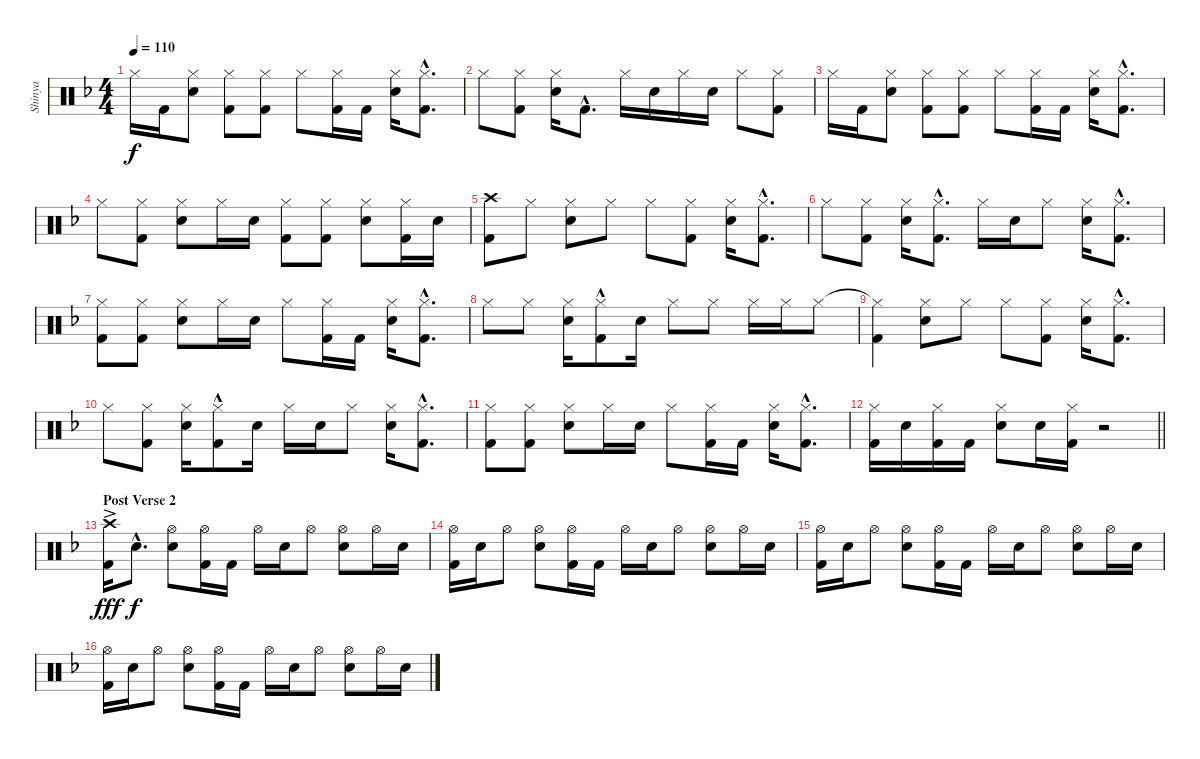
\track ("Shinya" "Shinya") {instrument percussion}
\staff {score}
\articulation defaults
\ts (4 4)
\tempo 110
\clef neutral
\ks f "Hi-Hat (closed)".16{dy f} "Kick (hit) 2".16
("Hi-Hat (closed)" "Snare (hit) 2").8 ("Hi-Hat (closed)" "Kick (hit) 2").8 ("Hi-Hat (closed)" "Kick (hit) 2").8 "Hi-Hat (closed)".8 ("Hi-Hat (closed)" "Kick (hit) 2").16 "Kick (hit) 2".16 ("Hi-Hat (closed)" "Snare (hit) 2").16 ("Hi-Hat (closed)"{hac} "Kick (hit) 2"{hac}).8{d} |
"Hi-Hat (closed)".8 ("Hi-Hat (closed)" "Kick (hit) 2").8 ("Hi-Hat (closed)" "Snare (hit) 2").16 "Kick (hit) 2"{hac}.8{d} "Hi-Hat (closed)".16 "Snare (hit) 2".16 "Hi-Hat (closed)".16 "Snare (hit) 2".16 "Hi-Hat (closed)".8 ("Hi-Hat (closed)" "Kick (hit) 2").8 |
"Hi-Hat (closed)".16 "Kick (hit) 2".16 ("Hi-Hat (closed)" "Snare (hit) 2").8 ("Hi-Hat (closed)" "Kick (hit) 2").8 ("Hi-Hat (closed)" "Kick (hit) 2").8 "Hi-Hat (closed)".8 ("Hi-Hat (closed)" "Kick (hit) 2").16 "Kick (hit) 2".16 ("Hi-Hat (closed)" "Snare (hit) 2").16 ("Hi-Hat (closed)"{hac} "Kick (hit) 2"{hac}).8{d} |
"Hi-Hat (closed)".8 ("Hi-Hat (closed)" "Kick (hit) 2").8 ("Hi-Hat (closed)" "Snare (hit) 2").8 "Hi-Hat (closed)".16 "Snare (hit) 2".16 ("Hi-Hat (closed)" "Kick (hit) 2").8 ("Hi-Hat (closed)" "Kick (hit) 2").8 ("Hi-Hat (closed)" "Snare (hit) 2").8 ("Hi-Hat (closed)" "Kick (hit) 2").16 "Snare (hit) 2".16 |
("Crash high (hit)" "Kick (hit) 2").8 "Hi-Hat (closed)".8 ("Hi-Hat (closed)" "Snare (hit) 2").8 "Hi-Hat (closed)".8 "Hi-Hat (closed)".8 ("Hi-Hat (closed)" "Kick (hit) 2").8 ("Hi-Hat (closed)" "Snare (hit) 2").16 ("Hi-Hat (closed)"{hac} "Kick (hit) 2"{hac}).8{d} |
"Hi-Hat (closed)".8 ("Hi-Hat (closed)" "Kick (hit) 2").8 ("Hi-Hat (closed)" "Snare (hit) 2").16 ("Hi-Hat (closed)"{hac} "Kick (hit) 2"{hac}).8{d} "Hi-Hat (closed)".16 "Snare (hit) 2".16 "Hi-Hat (closed)".8 ("Hi-Hat (closed)" "Snare (hit) 2").16 ("Hi-Hat (closed)"{hac} "Kick (hit) 2"{hac}).8{d} |
("Hi-Hat (closed)" "Kick (hit) 2").8 ("Hi-Hat (closed)" "Kick (hit) 2").8 ("Hi-Hat (closed)" "Snare (hit) 2").8 "Hi-Hat (closed)".16 "Snare (hit) 2".16 "Hi-Hat (closed)".8 ("Hi-Hat (closed)" "Kick (hit) 2").16 "Kick (hit) 2".16 ("Hi-Hat (closed)" "Snare (hit) 2").16 ("Hi-Hat (closed)"{hac} "Kick (hit) 2"{hac}).8{d} |
"Hi-Hat (closed)".8 "Hi-Hat (closed)".8 ("Hi-Hat (closed)" "Snare (hit) 2").16 ("Hi-Hat (closed)"{hac} "Kick (hit) 2").8 "Snare (hit) 2".16 "Hi-Hat (closed)".8 "Hi-Hat (closed)".8 "Hi-Hat (closed)".16 "Hi-Hat (closed)".16 "Hi-Hat (closed)".8 |
("Hi-Hat (closed)"{t} "Kick (hit) 2").4 ("Hi-Hat (closed)" "Snare (hit) 2").8 "Hi-Hat (closed)".8 "Hi-Hat (closed)".8 ("Hi-Hat (closed)" "Kick (hit) 2").8 ("Hi-Hat (closed)" "Snare (hit) 2").16 ("Hi-Hat (closed)"{hac} "Kick (hit) 2"{hac}).8{d} |
"Hi-Hat (closed)".8 ("Hi-Hat (closed)" "Kick (hit) 2").8 ("Hi-Hat (closed)" "Snare (hit) 2").16 ("Hi-Hat (closed)"{hac} "Kick (hit) 2").8 "Snare (hit) 2".16 "Hi-Hat (closed)".16 "Snare (hit) 2".16 "Hi-Hat (closed)".8 ("Hi-Hat (closed)" "Snare (hit) 2").16 ("Hi-Hat (closed)"{hac} "Kick (hit) 2"{hac}).8{d} |
("Hi-Hat (closed)" "Kick (hit) 2").8 ("Hi-Hat (closed)" "Kick (hit) 2").8 ("Hi-Hat (closed)" "Snare (hit) 2").8 "Hi-Hat (closed)".16 "Snare (hit) 2".16 "Hi-Hat (closed)".8 ("Hi-Hat (closed)" "Kick (hit) 2").16 "Kick (hit) 2".16 ("Hi-Hat (closed)" "Snare (hit) 2").16 ("Hi-Hat (closed)"{hac} "Kick (hit) 2"{hac}).8{d} |
\barLineRight lightlight
("Hi-Hat (closed)" "Kick (hit) 2").16 "Snare (hit) 2".16 ("Hi-Hat (closed)" "Kick (hit) 2").16 "Kick (hit) 2".16 ("Hi-Hat (closed)" "Snare (hit) 2").8 "Snare (hit) 2".16 ("Hi-Hat (closed)" "Kick (hit) 2").16 r.2 |
\section ("" "Post Verse 2")
("Crash high (hit)"{ac} "Kick (hit) 2").16{dy fff volume 15} "Snare (hit) 2"{hac}.8{d dy f} ("Hi-Hat (open)" "Snare (hit) 2").8 ("Hi-Hat (open)" "Kick (hit) 2").16 "Kick (hit) 2".16 "Hi-Hat (open)".16 "Snare (hit) 2".16 "Hi-Hat (open)".8 ("Hi-Hat (open)" "Snare (hit) 2").8 "Hi-Hat (open)".16 "Snare (hit) 2".16 |
("Hi-Hat (open)" "Kick (hit) 2").16 "Snare (hit) 2".16 "Hi-Hat (open)".8 ("Hi-Hat (open)" "Snare (hit) 2").8 ("Hi-Hat (open)" "Kick (hit) 2").16 "Kick (hit) 2".16 "Hi-Hat (open)".16 "Snare (hit) 2".16 "Hi-Hat (open)".8 ("Hi-Hat (open)" "Snare (hit) 2").8 "Hi-Hat (open)".16 "Snare (hit) 2".16 |
("Hi-Hat (open)" "Kick (hit) 2").16 "Snare (hit) 2".16 "Hi-Hat (open)".8 ("Hi-Hat (open)" "Snare (hit) 2").8 ("Hi-Hat (open)" "Kick (hit) 2").16 "Kick (hit) 2".16 "Hi-Hat (open)".16 "Snare (hit) 2".16 "Hi-Hat (open)".8 ("Hi-Hat (open)" "Snare (hit) 2").8 "Hi-Hat (open)".16 "Snare (hit) 2".16 |
("Hi-Hat (open)" "Kick (hit) 2").16 "Snare (hit) 2".16 "Hi-Hat (open)".8 ("Hi-Hat (open)" "Snare (hit) 2").8 ("Hi-Hat (open)" "Kick (hit) 2").16 "Kick (hit) 2".16 "Hi-Hat (open)".16 "Snare (hit) 2".16 "Hi-Hat (open)".8 ("Hi-Hat (open)" "Snare (hit) 2").8 "Hi-Hat (open)".16 "Snare (hit) 2".16
